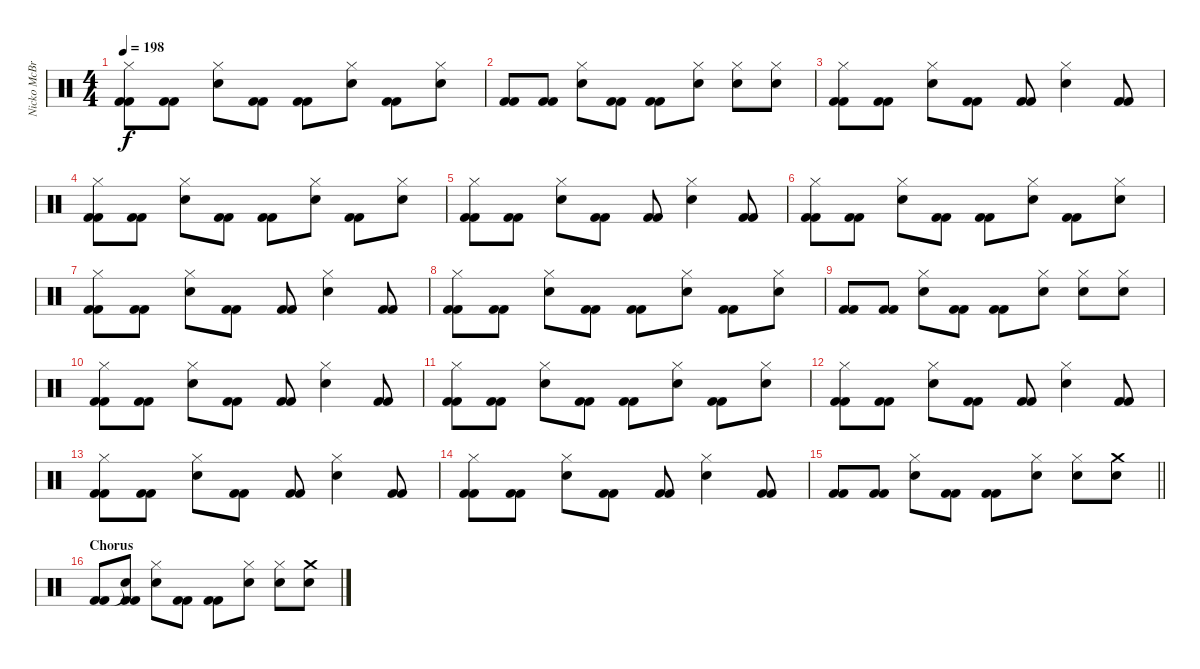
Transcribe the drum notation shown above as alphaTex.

\track ("Nicko McBrain" "Nicko McBr") {instrument percussion}
\staff {score}
\articulation defaults
\ts (4 4)
\tempo 198
\clef neutral
\ks c
("Hi-Hat (closed)" "Kick (hit) 2" "Kick (hit) 2").8{dy f} ("Kick (hit) 2" "Kick (hit) 2").8 ("Hi-Hat (closed)" "Electric Snare (hit)").8 ("Kick (hit) 2" "Kick (hit) 2").8 ("Kick (hit) 2" "Kick (hit) 2").8 ("Hi-Hat (closed)" "Electric Snare (hit)").8 ("Kick (hit) 2" "Kick (hit) 2").8 ("Hi-Hat (closed)" "Electric Snare (hit)").8 |
("Kick (hit) 2" "Kick (hit) 2").8 ("Kick (hit) 2" "Kick (hit) 2").8 ("Hi-Hat (closed)" "Electric Snare (hit)").8 ("Kick (hit) 2" "Kick (hit) 2").8 ("Kick (hit) 2" "Kick (hit) 2").8 ("Hi-Hat (closed)" "Electric Snare (hit)").8 ("Hi-Hat (closed)" "Electric Snare (hit)").8 ("Hi-Hat (closed)" "Electric Snare (hit)").8 |
("Hi-Hat (closed)" "Kick (hit) 2" "Kick (hit) 2").8 ("Kick (hit) 2" "Kick (hit) 2").8 ("Hi-Hat (closed)" "Electric Snare (hit)").8 ("Kick (hit) 2" "Kick (hit) 2").8 ("Kick (hit) 2" "Kick (hit) 2").8 ("Hi-Hat (closed)" "Electric Snare (hit)").4 ("Kick (hit) 2" "Kick (hit) 2").8 |
("Hi-Hat (closed)" "Kick (hit) 2" "Kick (hit) 2").8 ("Kick (hit) 2" "Kick (hit) 2").8 ("Hi-Hat (closed)" "Electric Snare (hit)").8 ("Kick (hit) 2" "Kick (hit) 2").8 ("Kick (hit) 2" "Kick (hit) 2").8 ("Hi-Hat (closed)" "Electric Snare (hit)").8 ("Kick (hit) 2" "Kick (hit) 2").8 ("Hi-Hat (closed)" "Electric Snare (hit)").8 |
("Hi-Hat (closed)" "Kick (hit) 2" "Kick (hit) 2").8 ("Kick (hit) 2" "Kick (hit) 2").8 ("Hi-Hat (closed)" "Electric Snare (hit)").8 ("Kick (hit) 2" "Kick (hit) 2").8 ("Kick (hit) 2" "Kick (hit) 2").8 ("Hi-Hat (closed)" "Electric Snare (hit)").4 ("Kick (hit) 2" "Kick (hit) 2").8 |
("Hi-Hat (closed)" "Kick (hit) 2" "Kick (hit) 2").8 ("Kick (hit) 2" "Kick (hit) 2").8 ("Hi-Hat (closed)" "Electric Snare (hit)").8 ("Kick (hit) 2" "Kick (hit) 2").8 ("Kick (hit) 2" "Kick (hit) 2").8 ("Hi-Hat (closed)" "Electric Snare (hit)").8 ("Kick (hit) 2" "Kick (hit) 2").8 ("Hi-Hat (closed)" "Electric Snare (hit)").8 |
("Hi-Hat (closed)" "Kick (hit) 2" "Kick (hit) 2").8 ("Kick (hit) 2" "Kick (hit) 2").8 ("Hi-Hat (closed)" "Electric Snare (hit)").8 ("Kick (hit) 2" "Kick (hit) 2").8 ("Kick (hit) 2" "Kick (hit) 2").8 ("Hi-Hat (closed)" "Electric Snare (hit)").4 ("Kick (hit) 2" "Kick (hit) 2").8 |
("Hi-Hat (closed)" "Kick (hit) 2" "Kick (hit) 2").8 ("Kick (hit) 2" "Kick (hit) 2").8 ("Hi-Hat (closed)" "Electric Snare (hit)").8 ("Kick (hit) 2" "Kick (hit) 2").8 ("Kick (hit) 2" "Kick (hit) 2").8 ("Hi-Hat (closed)" "Electric Snare (hit)").8 ("Kick (hit) 2" "Kick (hit) 2").8 ("Hi-Hat (closed)" "Electric Snare (hit)").8 |
("Kick (hit) 2" "Kick (hit) 2").8 ("Kick (hit) 2" "Kick (hit) 2").8 ("Hi-Hat (closed)" "Electric Snare (hit)").8 ("Kick (hit) 2" "Kick (hit) 2").8 ("Kick (hit) 2" "Kick (hit) 2").8 ("Hi-Hat (closed)" "Electric Snare (hit)").8 ("Hi-Hat (closed)" "Electric Snare (hit)").8 ("Hi-Hat (closed)" "Electric Snare (hit)").8 |
("Hi-Hat (closed)" "Kick (hit) 2" "Kick (hit) 2").8 ("Kick (hit) 2" "Kick (hit) 2").8 ("Hi-Hat (closed)" "Electric Snare (hit)").8 ("Kick (hit) 2" "Kick (hit) 2").8 ("Kick (hit) 2" "Kick (hit) 2").8 ("Hi-Hat (closed)" "Electric Snare (hit)").4 ("Kick (hit) 2" "Kick (hit) 2").8 |
("Hi-Hat (closed)" "Kick (hit) 2" "Kick (hit) 2").8 ("Kick (hit) 2" "Kick (hit) 2").8 ("Hi-Hat (closed)" "Electric Snare (hit)").8 ("Kick (hit) 2" "Kick (hit) 2").8 ("Kick (hit) 2" "Kick (hit) 2").8 ("Hi-Hat (closed)" "Electric Snare (hit)").8 ("Kick (hit) 2" "Kick (hit) 2").8 ("Hi-Hat (closed)" "Electric Snare (hit)").8 |
("Hi-Hat (closed)" "Kick (hit) 2" "Kick (hit) 2").8 ("Kick (hit) 2" "Kick (hit) 2").8 ("Hi-Hat (closed)" "Electric Snare (hit)").8 ("Kick (hit) 2" "Kick (hit) 2").8 ("Kick (hit) 2" "Kick (hit) 2").8 ("Hi-Hat (closed)" "Electric Snare (hit)").4 ("Kick (hit) 2" "Kick (hit) 2").8 |
("Hi-Hat (closed)" "Kick (hit) 2" "Kick (hit) 2").8 ("Kick (hit) 2" "Kick (hit) 2").8 ("Hi-Hat (closed)" "Electric Snare (hit)").8 ("Kick (hit) 2" "Kick (hit) 2").8 ("Kick (hit) 2" "Kick (hit) 2").8 ("Hi-Hat (closed)" "Electric Snare (hit)").4 ("Kick (hit) 2" "Kick (hit) 2").8 |
("Hi-Hat (closed)" "Kick (hit) 2" "Kick (hit) 2").8 ("Kick (hit) 2" "Kick (hit) 2").8 ("Hi-Hat (closed)" "Electric Snare (hit)").8 ("Kick (hit) 2" "Kick (hit) 2").8 ("Kick (hit) 2" "Kick (hit) 2").8 ("Hi-Hat (closed)" "Electric Snare (hit)").4 ("Kick (hit) 2" "Kick (hit) 2").8 |
\barLineRight lightlight
("Kick (hit) 2" "Kick (hit) 2").8 ("Kick (hit) 2" "Kick (hit) 2").8 ("Hi-Hat (closed)" "Electric Snare (hit)").8 ("Kick (hit) 2" "Kick (hit) 2").8 ("Kick (hit) 2" "Kick (hit) 2").8 ("Hi-Hat (closed)" "Electric Snare (hit)").8 ("Hi-Hat (closed)" "Electric Snare (hit)").8 ("Crash medium (hit)" "Electric Snare (hit)").8 |
\section ("" "Chorus")
("Kick (hit) 2" "Kick (hit) 2").8 ("Snare (hit)"{t} "Kick (hit) 2" "Kick (hit) 2").8 ("Hi-Hat (closed)" "Electric Snare (hit)").8 ("Kick (hit) 2" "Kick (hit) 2").8 ("Kick (hit) 2" "Kick (hit) 2").8 ("Hi-Hat (closed)" "Electric Snare (hit)").8 ("Hi-Hat (closed)" "Electric Snare (hit)").8 ("Crash medium (hit)" "Electric Snare (hit)").8
